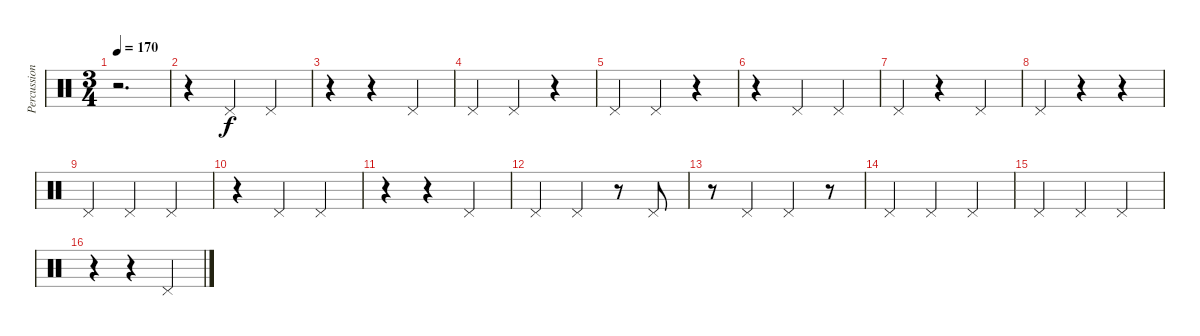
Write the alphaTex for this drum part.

\track ("Percussion" "Percussion") {instrument percussion}
\staff {score}
\articulation defaults
\ts (3 4)
\tempo 170
\clef neutral
\ks c
r.2{d dy f} |
r.4 "Pedal Hi-Hat (hit)".4 "Pedal Hi-Hat (hit)".4 |
r.4 r.4 "Pedal Hi-Hat (hit)".4 |
"Pedal Hi-Hat (hit)".4 "Pedal Hi-Hat (hit)".4 r.4 |
"Pedal Hi-Hat (hit)".4 "Pedal Hi-Hat (hit)".4 r.4 |
r.4 "Pedal Hi-Hat (hit)".4 "Pedal Hi-Hat (hit)".4 |
"Pedal Hi-Hat (hit)".4 r.4 "Pedal Hi-Hat (hit)".4 |
"Pedal Hi-Hat (hit)".4 r.4 r.4 |
"Pedal Hi-Hat (hit)".4 "Pedal Hi-Hat (hit)".4 "Pedal Hi-Hat (hit)".4 |
r.4 "Pedal Hi-Hat (hit)".4 "Pedal Hi-Hat (hit)".4 |
r.4 r.4 "Pedal Hi-Hat (hit)".4 |
"Pedal Hi-Hat (hit)".4 "Pedal Hi-Hat (hit)".4 r.8 "Pedal Hi-Hat (hit)".8 |
r.8 "Pedal Hi-Hat (hit)".4 "Pedal Hi-Hat (hit)".4 r.8 |
"Pedal Hi-Hat (hit)".4 "Pedal Hi-Hat (hit)".4 "Pedal Hi-Hat (hit)".4 |
"Pedal Hi-Hat (hit)".4 "Pedal Hi-Hat (hit)".4 "Pedal Hi-Hat (hit)".4 |
r.4 r.4 "Pedal Hi-Hat (hit)".4
